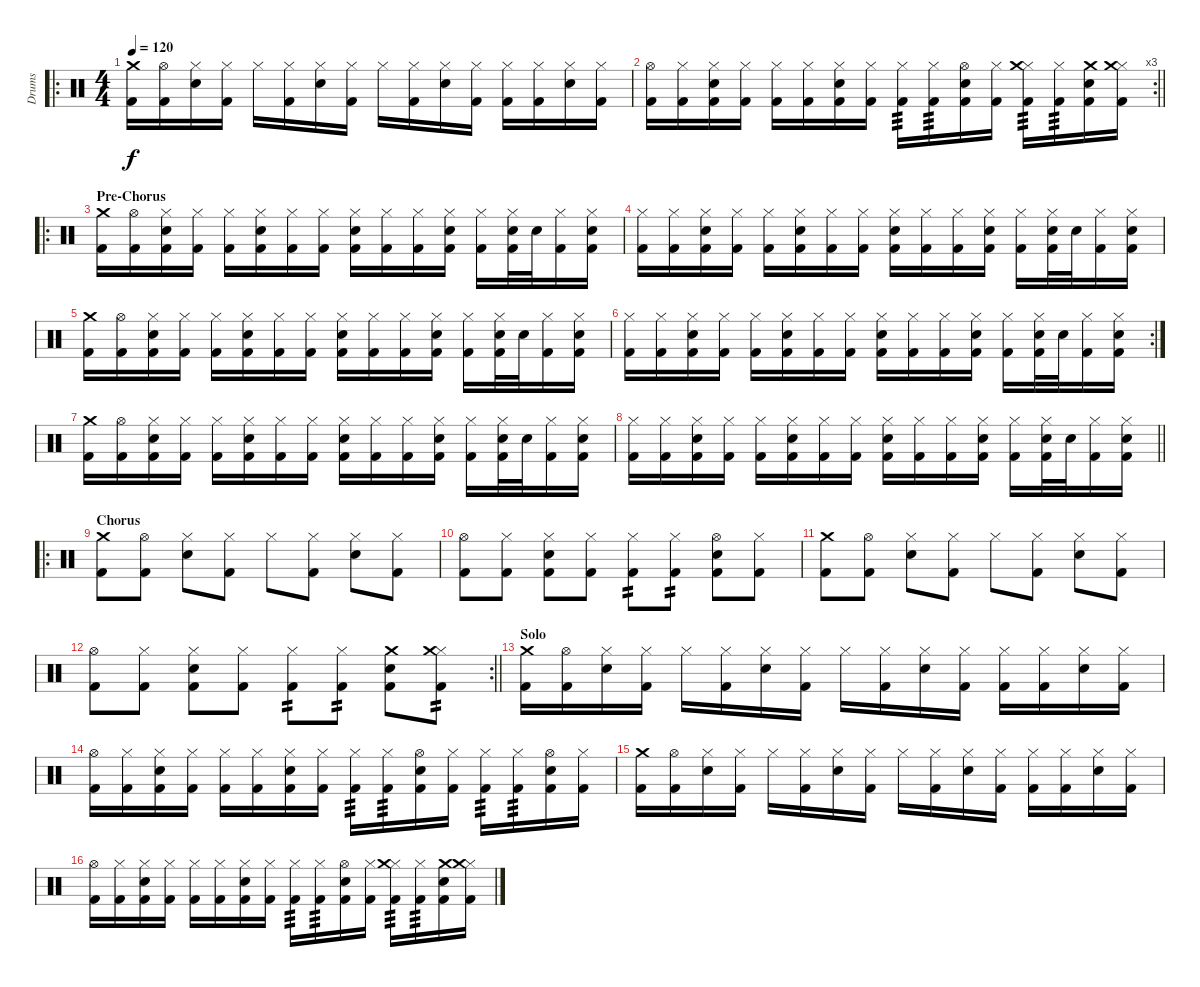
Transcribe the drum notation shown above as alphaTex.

\track ("Drums" "Drums") {instrument percussion}
\staff {score}
\articulation defaults
\ro
\ts (4 4)
\tempo 120
\clef neutral
\ks c
("Kick (hit) 2" "Crash medium (hit)").16{dy f} ("Kick (hit) 2" "Hi-Hat (open)").16 ("Snare (hit) 2" "Hi-Hat (closed)").16 ("Kick (hit) 2" "Hi-Hat (closed)").16 "Hi-Hat (closed)".16 ("Kick (hit) 2" "Hi-Hat (closed)").16 ("Snare (hit) 2" "Hi-Hat (closed)").16 ("Kick (hit) 2" "Hi-Hat (closed)").16 "Hi-Hat (closed)".16 ("Kick (hit) 2" "Hi-Hat (closed)").16 ("Snare (hit) 2" "Hi-Hat (closed)").16 ("Kick (hit) 2" "Hi-Hat (closed)").16 ("Kick (hit) 2" "Hi-Hat (closed)").16 ("Kick (hit) 2" "Hi-Hat (closed)").16 ("Snare (hit) 2" "Hi-Hat (closed)").16 ("Kick (hit) 2" "Hi-Hat (closed)").16 |
\rc 3
\barLineRight lightlight
("Kick (hit) 2" "Hi-Hat (open)").16 ("Kick (hit) 2" "Hi-Hat (closed)").16 ("Kick (hit) 2" "Snare (hit) 2" "Hi-Hat (closed)").16 ("Kick (hit) 2" "Hi-Hat (closed)").16 ("Kick (hit) 2" "Hi-Hat (closed)").16 ("Kick (hit) 2" "Hi-Hat (closed)").16 ("Kick (hit) 2" "Snare (hit) 2" "Hi-Hat (closed)").16 ("Kick (hit) 2" "Hi-Hat (closed)").16 ("Kick (hit) 2" "Hi-Hat (closed)").16{tp 3} ("Kick (hit) 2" "Hi-Hat (closed)").16{tp 3} ("Kick (hit) 2" "Snare (hit) 2" "Hi-Hat (open)").16 ("Kick (hit) 2" "Hi-Hat (closed)").16 ("Kick (hit) 2" "Hi-Hat (closed)" "Crash medium (hit)").16{tp 3} ("Kick (hit) 2" "Hi-Hat (closed)").16{tp 3} ("Kick (hit) 2" "Snare (hit) 2" "Crash medium (hit)").16 ("Kick (hit) 2" "Hi-Hat (closed)" "Crash medium (hit)").16 |
\ro
\section ("" "Pre-Chorus")
("Kick (hit) 2" "Crash medium (hit)").16 ("Kick (hit) 2" "Hi-Hat (open)").16 ("Kick (hit) 2" "Snare (hit) 2" "Hi-Hat (closed)").16 ("Kick (hit) 2" "Hi-Hat (closed)").16 ("Kick (hit) 2" "Hi-Hat (closed)").16 ("Kick (hit) 2" "Snare (hit) 2" "Hi-Hat (closed)").16 ("Kick (hit) 2" "Hi-Hat (closed)").16 ("Kick (hit) 2" "Hi-Hat (closed)").16 ("Kick (hit) 2" "Snare (hit) 2" "Hi-Hat (closed)").16 ("Kick (hit) 2" "Hi-Hat (closed)").16 ("Kick (hit) 2" "Hi-Hat (closed)").16 ("Kick (hit) 2" "Snare (hit) 2" "Hi-Hat (closed)").16 ("Kick (hit) 2" "Hi-Hat (closed)").16 ("Kick (hit) 2" "Snare (hit) 2" "Hi-Hat (closed)").32 "Snare (hit) 2".32 ("Kick (hit) 2" "Hi-Hat (closed)").16 ("Kick (hit) 2" "Snare (hit) 2" "Hi-Hat (closed)").16 |
("Kick (hit) 2" "Hi-Hat (closed)").16 ("Kick (hit) 2" "Hi-Hat (closed)").16 ("Kick (hit) 2" "Snare (hit) 2" "Hi-Hat (closed)").16 ("Kick (hit) 2" "Hi-Hat (closed)").16 ("Kick (hit) 2" "Hi-Hat (closed)").16 ("Kick (hit) 2" "Snare (hit) 2" "Hi-Hat (closed)").16 ("Kick (hit) 2" "Hi-Hat (closed)").16 ("Kick (hit) 2" "Hi-Hat (closed)").16 ("Kick (hit) 2" "Snare (hit) 2" "Hi-Hat (closed)").16 ("Kick (hit) 2" "Hi-Hat (closed)").16 ("Kick (hit) 2" "Hi-Hat (closed)").16 ("Kick (hit) 2" "Snare (hit) 2" "Hi-Hat (closed)").16 ("Kick (hit) 2" "Hi-Hat (closed)").16 ("Kick (hit) 2" "Snare (hit) 2" "Hi-Hat (closed)").32 "Snare (hit) 2".32 ("Kick (hit) 2" "Hi-Hat (closed)").16 ("Kick (hit) 2" "Snare (hit) 2" "Hi-Hat (closed)").16 |
("Kick (hit) 2" "Crash medium (hit)").16 ("Kick (hit) 2" "Hi-Hat (open)").16 ("Kick (hit) 2" "Snare (hit) 2" "Hi-Hat (closed)").16 ("Kick (hit) 2" "Hi-Hat (closed)").16 ("Kick (hit) 2" "Hi-Hat (closed)").16 ("Kick (hit) 2" "Snare (hit) 2" "Hi-Hat (closed)").16 ("Kick (hit) 2" "Hi-Hat (closed)").16 ("Kick (hit) 2" "Hi-Hat (closed)").16 ("Kick (hit) 2" "Snare (hit) 2" "Hi-Hat (closed)").16 ("Kick (hit) 2" "Hi-Hat (closed)").16 ("Kick (hit) 2" "Hi-Hat (closed)").16 ("Kick (hit) 2" "Snare (hit) 2" "Hi-Hat (closed)").16 ("Kick (hit) 2" "Hi-Hat (closed)").16 ("Kick (hit) 2" "Snare (hit) 2" "Hi-Hat (closed)").32 "Snare (hit) 2".32 ("Kick (hit) 2" "Hi-Hat (closed)").16 ("Kick (hit) 2" "Snare (hit) 2" "Hi-Hat (closed)").16 |
\rc 2
("Kick (hit) 2" "Hi-Hat (closed)").16 ("Kick (hit) 2" "Hi-Hat (closed)").16 ("Kick (hit) 2" "Snare (hit) 2" "Hi-Hat (closed)").16 ("Kick (hit) 2" "Hi-Hat (closed)").16 ("Kick (hit) 2" "Hi-Hat (closed)").16 ("Kick (hit) 2" "Snare (hit) 2" "Hi-Hat (closed)").16 ("Kick (hit) 2" "Hi-Hat (closed)").16 ("Kick (hit) 2" "Hi-Hat (closed)").16 ("Kick (hit) 2" "Snare (hit) 2" "Hi-Hat (closed)").16 ("Kick (hit) 2" "Hi-Hat (closed)").16 ("Kick (hit) 2" "Hi-Hat (closed)").16 ("Kick (hit) 2" "Snare (hit) 2" "Hi-Hat (closed)").16 ("Kick (hit) 2" "Hi-Hat (closed)").16 ("Kick (hit) 2" "Snare (hit) 2" "Hi-Hat (closed)").32 "Snare (hit) 2".32 ("Kick (hit) 2" "Hi-Hat (closed)").16 ("Kick (hit) 2" "Snare (hit) 2" "Hi-Hat (closed)").16 |
("Kick (hit) 2" "Crash medium (hit)").16 ("Kick (hit) 2" "Hi-Hat (open)").16 ("Kick (hit) 2" "Snare (hit) 2" "Hi-Hat (closed)").16 ("Kick (hit) 2" "Hi-Hat (closed)").16 ("Kick (hit) 2" "Hi-Hat (closed)").16 ("Kick (hit) 2" "Snare (hit) 2" "Hi-Hat (closed)").16 ("Kick (hit) 2" "Hi-Hat (closed)").16 ("Kick (hit) 2" "Hi-Hat (closed)").16 ("Kick (hit) 2" "Snare (hit) 2" "Hi-Hat (closed)").16 ("Kick (hit) 2" "Hi-Hat (closed)").16 ("Kick (hit) 2" "Hi-Hat (closed)").16 ("Kick (hit) 2" "Snare (hit) 2" "Hi-Hat (closed)").16 ("Kick (hit) 2" "Hi-Hat (closed)").16 ("Kick (hit) 2" "Snare (hit) 2" "Hi-Hat (closed)").32 "Snare (hit) 2".32 ("Kick (hit) 2" "Hi-Hat (closed)").16 ("Kick (hit) 2" "Snare (hit) 2" "Hi-Hat (closed)").16 |
\barLineRight lightlight
("Kick (hit) 2" "Hi-Hat (closed)").16 ("Kick (hit) 2" "Hi-Hat (closed)").16 ("Kick (hit) 2" "Snare (hit) 2" "Hi-Hat (closed)").16 ("Kick (hit) 2" "Hi-Hat (closed)").16 ("Kick (hit) 2" "Hi-Hat (closed)").16 ("Kick (hit) 2" "Snare (hit) 2" "Hi-Hat (closed)").16 ("Kick (hit) 2" "Hi-Hat (closed)").16 ("Kick (hit) 2" "Hi-Hat (closed)").16 ("Kick (hit) 2" "Snare (hit) 2" "Hi-Hat (closed)").16 ("Kick (hit) 2" "Hi-Hat (closed)").16 ("Kick (hit) 2" "Hi-Hat (closed)").16 ("Kick (hit) 2" "Snare (hit) 2" "Hi-Hat (closed)").16 ("Kick (hit) 2" "Hi-Hat (closed)").16 ("Kick (hit) 2" "Snare (hit) 2" "Hi-Hat (closed)").32 "Snare (hit) 2".32 ("Kick (hit) 2" "Hi-Hat (closed)").16 ("Kick (hit) 2" "Snare (hit) 2" "Hi-Hat (closed)").16 |
\ro
\section ("" "Chorus")
("Kick (hit) 2" "Crash medium (hit)").8 ("Kick (hit) 2" "Hi-Hat (open)").8 ("Snare (hit) 2" "Hi-Hat (closed)").8 ("Kick (hit) 2" "Hi-Hat (closed)").8 "Hi-Hat (closed)".8 ("Kick (hit) 2" "Hi-Hat (closed)").8 ("Snare (hit) 2" "Hi-Hat (closed)").8 ("Kick (hit) 2" "Hi-Hat (closed)").8 |
("Kick (hit) 2" "Hi-Hat (open)").8 ("Kick (hit) 2" "Hi-Hat (closed)").8 ("Kick (hit) 2" "Snare (hit) 2" "Hi-Hat (closed)").8 ("Kick (hit) 2" "Hi-Hat (closed)").8 ("Kick (hit) 2" "Hi-Hat (closed)").8{tp 2} ("Kick (hit) 2" "Hi-Hat (closed)").8{tp 2} ("Kick (hit) 2" "Snare (hit) 2" "Hi-Hat (open)").8 ("Kick (hit) 2" "Hi-Hat (closed)").8 |
("Kick (hit) 2" "Crash medium (hit)").8 ("Kick (hit) 2" "Hi-Hat (open)").8 ("Snare (hit) 2" "Hi-Hat (closed)").8 ("Kick (hit) 2" "Hi-Hat (closed)").8 "Hi-Hat (closed)".8 ("Kick (hit) 2" "Hi-Hat (closed)").8 ("Snare (hit) 2" "Hi-Hat (closed)").8 ("Kick (hit) 2" "Hi-Hat (closed)").8 |
\rc 2
\barLineRight lightlight
("Kick (hit) 2" "Hi-Hat (open)").8 ("Kick (hit) 2" "Hi-Hat (closed)").8 ("Kick (hit) 2" "Snare (hit) 2" "Hi-Hat (closed)").8 ("Kick (hit) 2" "Hi-Hat (closed)").8 ("Kick (hit) 2" "Hi-Hat (closed)").8{tp 2} ("Kick (hit) 2" "Hi-Hat (closed)").8{tp 2} ("Kick (hit) 2" "Snare (hit) 2" "Crash medium (hit)").8 ("Kick (hit) 2" "Hi-Hat (closed)" "Crash medium (hit)").8{tp 2} |
\section ("" "Solo")
("Kick (hit) 2" "Crash medium (hit)").16 ("Kick (hit) 2" "Hi-Hat (open)").16 ("Snare (hit) 2" "Hi-Hat (closed)").16 ("Kick (hit) 2" "Hi-Hat (closed)").16 "Hi-Hat (closed)".16 ("Kick (hit) 2" "Hi-Hat (closed)").16 ("Snare (hit) 2" "Hi-Hat (closed)").16 ("Kick (hit) 2" "Hi-Hat (closed)").16 "Hi-Hat (closed)".16 ("Kick (hit) 2" "Hi-Hat (closed)").16 ("Snare (hit) 2" "Hi-Hat (closed)").16 ("Kick (hit) 2" "Hi-Hat (closed)").16 ("Kick (hit) 2" "Hi-Hat (closed)").16 ("Kick (hit) 2" "Hi-Hat (closed)").16 ("Snare (hit) 2" "Hi-Hat (closed)").16 ("Kick (hit) 2" "Hi-Hat (closed)").16 |
("Kick (hit) 2" "Hi-Hat (open)").16 ("Kick (hit) 2" "Hi-Hat (closed)").16 ("Kick (hit) 2" "Snare (hit) 2" "Hi-Hat (closed)").16 ("Kick (hit) 2" "Hi-Hat (closed)").16 ("Kick (hit) 2" "Hi-Hat (closed)").16 ("Kick (hit) 2" "Hi-Hat (closed)").16 ("Kick (hit) 2" "Snare (hit) 2" "Hi-Hat (closed)").16 ("Kick (hit) 2" "Hi-Hat (closed)").16 ("Kick (hit) 2" "Hi-Hat (closed)").16{tp 3} ("Kick (hit) 2" "Hi-Hat (closed)").16{tp 3} ("Kick (hit) 2" "Snare (hit) 2" "Hi-Hat (open)").16 ("Kick (hit) 2" "Hi-Hat (closed)").16 ("Kick (hit) 2" "Hi-Hat (closed)").16{tp 3} ("Kick (hit) 2" "Hi-Hat (closed)").16{tp 3} ("Kick (hit) 2" "Snare (hit) 2" "Hi-Hat (open)").16 ("Kick (hit) 2" "Hi-Hat (closed)").16 |
("Kick (hit) 2" "Crash medium (hit)").16 ("Kick (hit) 2" "Hi-Hat (open)").16 ("Snare (hit) 2" "Hi-Hat (closed)").16 ("Kick (hit) 2" "Hi-Hat (closed)").16 "Hi-Hat (closed)".16 ("Kick (hit) 2" "Hi-Hat (closed)").16 ("Snare (hit) 2" "Hi-Hat (closed)").16 ("Kick (hit) 2" "Hi-Hat (closed)").16 "Hi-Hat (closed)".16 ("Kick (hit) 2" "Hi-Hat (closed)").16 ("Snare (hit) 2" "Hi-Hat (closed)").16 ("Kick (hit) 2" "Hi-Hat (closed)").16 ("Kick (hit) 2" "Hi-Hat (closed)").16 ("Kick (hit) 2" "Hi-Hat (closed)").16 ("Snare (hit) 2" "Hi-Hat (closed)").16 ("Kick (hit) 2" "Hi-Hat (closed)").16 |
("Kick (hit) 2" "Hi-Hat (open)").16 ("Kick (hit) 2" "Hi-Hat (closed)").16 ("Kick (hit) 2" "Snare (hit) 2" "Hi-Hat (closed)").16 ("Kick (hit) 2" "Hi-Hat (closed)").16 ("Kick (hit) 2" "Hi-Hat (closed)").16 ("Kick (hit) 2" "Hi-Hat (closed)").16 ("Kick (hit) 2" "Snare (hit) 2" "Hi-Hat (closed)").16 ("Kick (hit) 2" "Hi-Hat (closed)").16 ("Kick (hit) 2" "Hi-Hat (closed)").16{tp 3} ("Kick (hit) 2" "Hi-Hat (closed)").16{tp 3} ("Kick (hit) 2" "Snare (hit) 2" "Hi-Hat (open)").16 ("Kick (hit) 2" "Hi-Hat (closed)").16 ("Kick (hit) 2" "Hi-Hat (closed)" "Crash medium (hit)").16{tp 3} ("Kick (hit) 2" "Hi-Hat (closed)").16{tp 3} ("Kick (hit) 2" "Snare (hit) 2" "Crash medium (hit)").16 ("Kick (hit) 2" "Hi-Hat (closed)" "Crash medium (hit)").16
